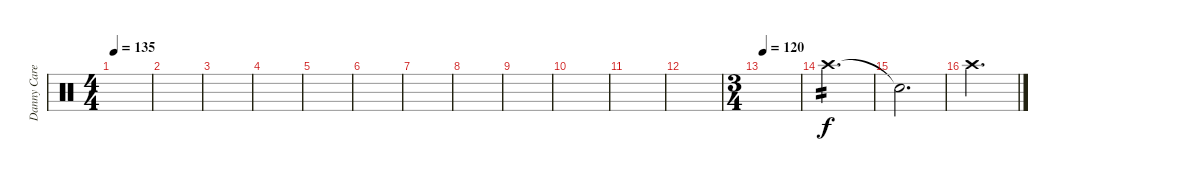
\track ("Danny Carey" "Danny Care") {instrument percussion}
\staff {score}
\articulation defaults
\ts (4 4)
\tempo 135
\clef neutral
\ks c
|
|
|
|
|
|
|
|
|
|
|
|
\ts (3 4)
\tempo 120
|
"Crash high (hit)".2{d tp 2 volume 13} |
"Snare (hit)"{t}.2{d} |
"Crash high (hit)".2{d}
